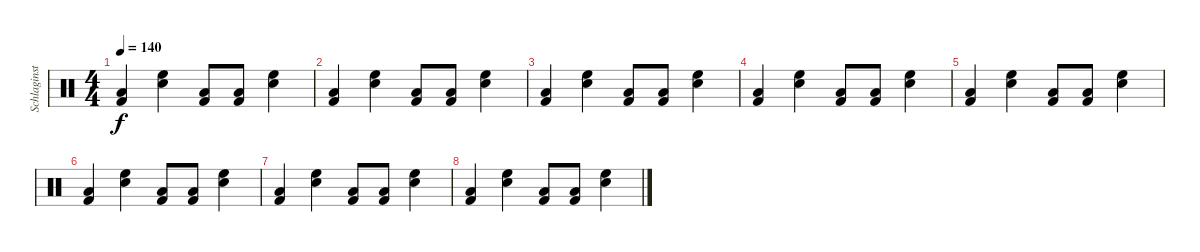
\track ("Schlaginstrumente - Auswahl" "Schlaginst") {instrument percussion}
\staff {score}
\articulation defaults
\ts (4 4)
\tempo 140
\clef neutral
\ks c
("Low Tom (hit)" "Kick (hit) 2").4{dy f} ("Snare (hit) 2" "High Floor Tom (hit)").4 ("Low Tom (hit)" "Kick (hit) 2").8 ("Low Tom (hit)" "Kick (hit) 2").8 ("Snare (hit) 2" "High Floor Tom (hit)").4 |
("Low Tom (hit)" "Kick (hit) 2").4 ("Snare (hit) 2" "High Floor Tom (hit)").4 ("Low Tom (hit)" "Kick (hit) 2").8 ("Low Tom (hit)" "Kick (hit) 2").8 ("Snare (hit) 2" "High Floor Tom (hit)").4 |
("Low Tom (hit)" "Kick (hit) 2").4 ("Snare (hit) 2" "High Floor Tom (hit)").4 ("Low Tom (hit)" "Kick (hit) 2").8 ("Low Tom (hit)" "Kick (hit) 2").8 ("Snare (hit) 2" "High Floor Tom (hit)").4 |
("Low Tom (hit)" "Kick (hit) 2").4 ("Snare (hit) 2" "High Floor Tom (hit)").4 ("Low Tom (hit)" "Kick (hit) 2").8 ("Low Tom (hit)" "Kick (hit) 2").8 ("Snare (hit) 2" "High Floor Tom (hit)").4 |
("Low Tom (hit)" "Kick (hit) 2").4 ("Snare (hit) 2" "High Floor Tom (hit)").4 ("Low Tom (hit)" "Kick (hit) 2").8 ("Low Tom (hit)" "Kick (hit) 2").8 ("Snare (hit) 2" "High Floor Tom (hit)").4 |
("Low Tom (hit)" "Kick (hit) 2").4 ("Snare (hit) 2" "High Floor Tom (hit)").4 ("Low Tom (hit)" "Kick (hit) 2").8 ("Low Tom (hit)" "Kick (hit) 2").8 ("Snare (hit) 2" "High Floor Tom (hit)").4 |
("Low Tom (hit)" "Kick (hit) 2").4 ("Snare (hit) 2" "High Floor Tom (hit)").4 ("Low Tom (hit)" "Kick (hit) 2").8 ("Low Tom (hit)" "Kick (hit) 2").8 ("Snare (hit) 2" "High Floor Tom (hit)").4 |
("Low Tom (hit)" "Kick (hit) 2").4 ("Snare (hit) 2" "High Floor Tom (hit)").4 ("Low Tom (hit)" "Kick (hit) 2").8 ("Low Tom (hit)" "Kick (hit) 2").8 ("Snare (hit) 2" "High Floor Tom (hit)").4
